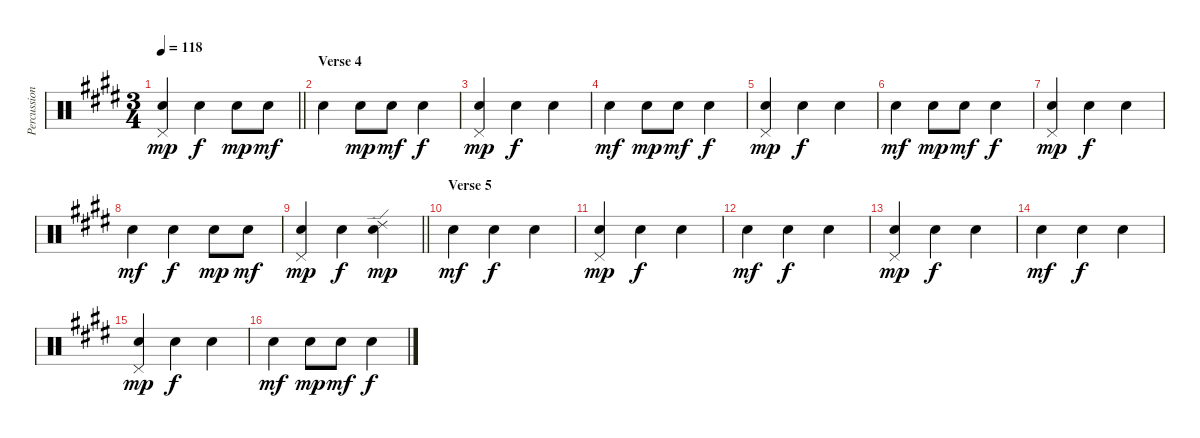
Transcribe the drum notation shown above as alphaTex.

\track ("Percussion" "Percussion") {instrument percussion}
\staff {score}
\articulation defaults
\ts (3 4)
\tempo 118
\clef neutral
\barLineRight lightlight
\ks e
("Hand Clap (hit)" "Pedal Hi-Hat (hit)").4{dy mp} "Snare (hit) 2".4{dy f} "Snare (hit) 2".8{dy mp} "Snare (hit) 2".8{dy mf} |
\section ("" "Verse 4")
"Snare (hit) 2".4 "Snare (hit) 2".8{dy mp} "Snare (hit) 2".8{dy mf} "Snare (hit) 2".4{dy f} |
("Hand Clap (hit)" "Pedal Hi-Hat (hit)").4{dy mp} "Snare (hit) 2".4{dy f} "Snare (hit) 2".4 |
"Snare (hit) 2".4{dy mf} "Snare (hit) 2".8{dy mp} "Snare (hit) 2".8{dy mf} "Snare (hit) 2".4{dy f} |
("Hand Clap (hit)" "Pedal Hi-Hat (hit)").4{dy mp} "Snare (hit) 2".4{dy f} "Snare (hit) 2".4 |
"Snare (hit) 2".4{dy mf} "Snare (hit) 2".8{dy mp} "Snare (hit) 2".8{dy mf} "Snare (hit) 2".4{dy f} |
("Hand Clap (hit)" "Pedal Hi-Hat (hit)").4{dy mp} "Snare (hit) 2".4{dy f} "Snare (hit) 2".4 |
"Snare (hit) 2".4{dy mf} "Snare (hit) 2".4{dy f} "Snare (hit) 2".8{dy mp} "Snare (hit) 2".8{dy mf} |
\barLineRight lightlight
("Hand Clap (hit)" "Pedal Hi-Hat (hit)").4{dy mp} "Snare (hit) 2".4{dy f} ("Snare (hit) 2" "Ride (edge) 2").4{dy mp} |
\section ("" "Verse 5")
"Snare (hit) 2".4{dy mf} "Snare (hit) 2".4{dy f} "Snare (hit) 2".4 |
("Hand Clap (hit)" "Pedal Hi-Hat (hit)").4{dy mp} "Snare (hit) 2".4{dy f} "Snare (hit) 2".4 |
"Snare (hit) 2".4{dy mf} "Snare (hit) 2".4{dy f} "Snare (hit) 2".4 |
("Hand Clap (hit)" "Pedal Hi-Hat (hit)").4{dy mp} "Snare (hit) 2".4{dy f} "Snare (hit) 2".4 |
"Snare (hit) 2".4{dy mf} "Snare (hit) 2".4{dy f} "Snare (hit) 2".4 |
("Hand Clap (hit)" "Pedal Hi-Hat (hit)").4{dy mp} "Snare (hit) 2".4{dy f} "Snare (hit) 2".4 |
"Snare (hit) 2".4{dy mf} "Snare (hit) 2".8{dy mp} "Snare (hit) 2".8{dy mf} "Snare (hit) 2".4{dy f}
